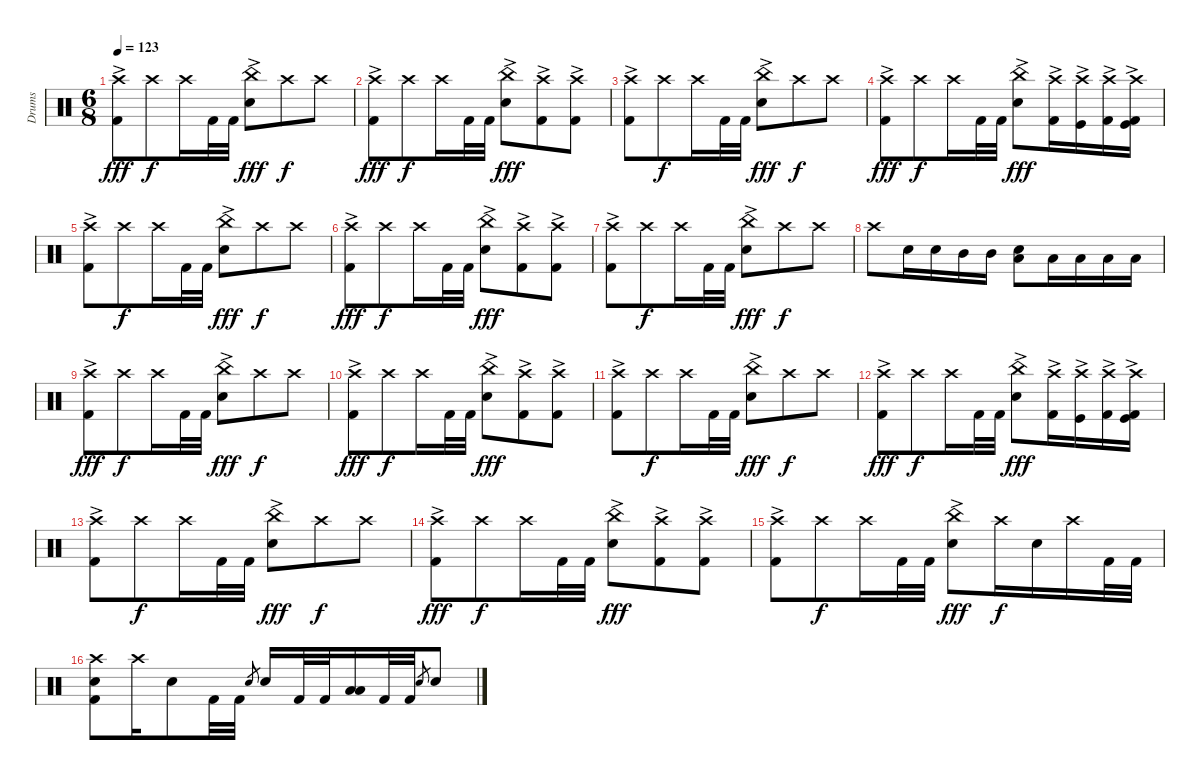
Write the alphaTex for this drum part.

\track ("Drums" "Drums") {instrument percussion}
\staff {score}
\articulation defaults
\ts (6 8)
\tempo 123
\clef neutral
\ks c
("Crash high (hit)"{ac} "Kick (hit) 2").8{dy fff} "Crash high (hit)".8{dy f} "Crash high (hit)".16 "Kick (hit) 2".32 "Kick (hit) 2".32 ("China (hit)"{ac} "Electric Snare (hit)").8{dy fff} "Crash high (hit)".8{dy f} "Crash high (hit)".8 |
("Crash high (hit)"{ac} "Kick (hit) 2").8{dy fff} "Crash high (hit)".8{dy f} "Crash high (hit)".16 "Kick (hit) 2".32 "Kick (hit) 2".32 ("China (hit)"{ac} "Electric Snare (hit)").8{dy fff} ("Crash high (hit)"{ac} "Kick (hit) 2").8 ("Crash high (hit)"{ac} "Kick (hit) 2").8 |
("Crash high (hit)"{ac} "Kick (hit) 2").8 "Crash high (hit)".8{dy f} "Crash high (hit)".16 "Kick (hit) 2".32 "Kick (hit) 2".32 ("China (hit)"{ac} "Electric Snare (hit)").8{dy fff} "Crash high (hit)".8{dy f} "Crash high (hit)".8 |
("Crash high (hit)"{ac} "Kick (hit) 2").8{dy fff} "Crash high (hit)".8{dy f} "Crash high (hit)".16 "Kick (hit) 2".32 "Kick (hit) 2".32 ("China (hit)"{ac} "Electric Snare (hit)").8{dy fff} ("Crash high (hit)"{ac} "Kick (hit) 2").16 ("Crash high (hit)"{ac} "Kick (hit)").16 ("Crash high (hit)"{ac} "Kick (hit) 2").16 ("Crash high (hit)"{ac} "Kick (hit) 2" "Kick (hit)").16 |
("Crash high (hit)"{ac} "Kick (hit) 2").8 "Crash high (hit)".8{dy f} "Crash high (hit)".16 "Kick (hit) 2".32 "Kick (hit) 2".32 ("China (hit)"{ac} "Electric Snare (hit)").8{dy fff} "Crash high (hit)".8{dy f} "Crash high (hit)".8 |
("Crash high (hit)"{ac} "Kick (hit) 2").8{dy fff} "Crash high (hit)".8{dy f} "Crash high (hit)".16 "Kick (hit) 2".32 "Kick (hit) 2".32 ("China (hit)"{ac} "Electric Snare (hit)").8{dy fff} ("Crash high (hit)"{ac} "Kick (hit) 2").8 ("Crash high (hit)"{ac} "Kick (hit) 2").8 |
("Crash high (hit)"{ac} "Kick (hit) 2").8 "Crash high (hit)".8{dy f} "Crash high (hit)".16 "Kick (hit) 2".32 "Kick (hit) 2".32 ("China (hit)"{ac} "Electric Snare (hit)").8{dy fff} "Crash high (hit)".8{dy f} "Crash high (hit)".8 |
"Crash high (hit)".8 "Electric Snare (hit)".16 "Electric Snare (hit)".16 "Mid Tom (hit)".16 "Mid Tom (hit)".16 ("Electric Snare (hit)" "Low Floor Tom (hit)").8 "Low Tom (hit)".16 "Low Tom (hit)".16 "Low Floor Tom (hit)".16 "Low Floor Tom (hit)".16 |
("Crash high (hit)"{ac} "Kick (hit) 2").8{dy fff} "Crash high (hit)".8{dy f} "Crash high (hit)".16 "Kick (hit) 2".32 "Kick (hit) 2".32 ("China (hit)"{ac} "Electric Snare (hit)").8{dy fff} "Crash high (hit)".8{dy f} "Crash high (hit)".8 |
("Crash high (hit)"{ac} "Kick (hit) 2").8{dy fff} "Crash high (hit)".8{dy f} "Crash high (hit)".16 "Kick (hit) 2".32 "Kick (hit) 2".32 ("China (hit)"{ac} "Electric Snare (hit)").8{dy fff} ("Crash high (hit)"{ac} "Kick (hit) 2").8 ("Crash high (hit)"{ac} "Kick (hit) 2").8 |
("Crash high (hit)"{ac} "Kick (hit) 2").8 "Crash high (hit)".8{dy f} "Crash high (hit)".16 "Kick (hit) 2".32 "Kick (hit) 2".32 ("China (hit)"{ac} "Electric Snare (hit)").8{dy fff} "Crash high (hit)".8{dy f} "Crash high (hit)".8 |
("Crash high (hit)"{ac} "Kick (hit) 2").8{dy fff} "Crash high (hit)".8{dy f} "Crash high (hit)".16 "Kick (hit) 2".32 "Kick (hit) 2".32 ("China (hit)"{ac} "Electric Snare (hit)").8{dy fff} ("Crash high (hit)"{ac} "Kick (hit) 2").16 ("Crash high (hit)"{ac} "Kick (hit)").16 ("Crash high (hit)"{ac} "Kick (hit) 2").16 ("Crash high (hit)"{ac} "Kick (hit) 2" "Kick (hit)").16 |
("Crash high (hit)"{ac} "Kick (hit) 2").8 "Crash high (hit)".8{dy f} "Crash high (hit)".16 "Kick (hit) 2".32 "Kick (hit) 2".32 ("China (hit)"{ac} "Electric Snare (hit)").8{dy fff} "Crash high (hit)".8{dy f} "Crash high (hit)".8 |
("Crash high (hit)"{ac} "Kick (hit) 2").8{dy fff} "Crash high (hit)".8{dy f} "Crash high (hit)".16 "Kick (hit) 2".32 "Kick (hit) 2".32 ("China (hit)"{ac} "Electric Snare (hit)").8{dy fff} ("Crash high (hit)"{ac} "Kick (hit) 2").8 ("Crash high (hit)"{ac} "Kick (hit) 2").8 |
("Crash high (hit)"{ac} "Kick (hit) 2").8 "Crash high (hit)".8{dy f} "Crash high (hit)".16 "Kick (hit) 2".32 "Kick (hit) 2".32 ("China (hit)"{ac} "Electric Snare (hit)").8{dy fff} "Crash high (hit)".16{dy f} "Electric Snare (hit)".16 "Crash high (hit)".16 "Kick (hit) 2".32 "Kick (hit) 2".32 |
("Crash high (hit)" "Electric Snare (hit)" "Kick (hit) 2").8 "Crash high (hit)".16 "Electric Snare (hit)".8 "Kick (hit) 2".32 "Kick (hit) 2".32 "Electric Snare (hit)".8{gr} "Electric Snare (hit)".16 "Kick (hit) 2".32 "Kick (hit) 2".32 ("Low Tom (hit)" "Low Floor Tom (hit)").16 "Kick (hit) 2".32 "Kick (hit) 2".32 "Electric Snare (hit)".8{gr} "Electric Snare (hit)".8
